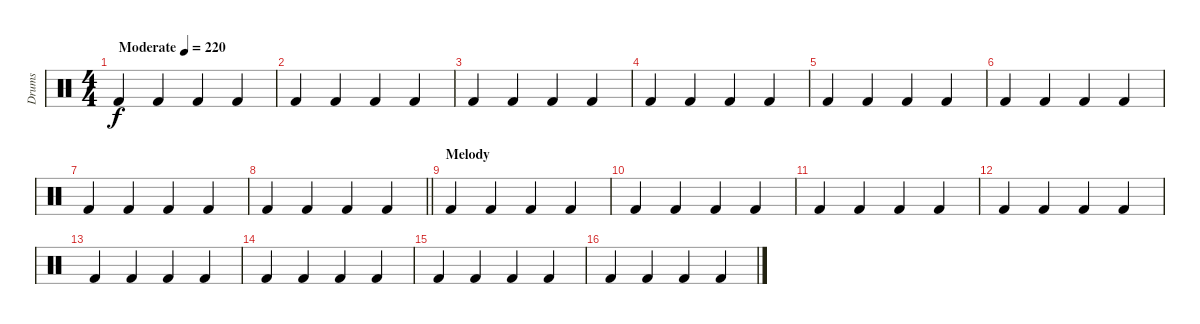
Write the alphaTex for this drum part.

\track ("Drums" "Drums") {instrument percussion}
\staff {score}
\articulation defaults
\ts (4 4)
\tempo (220 "Moderate")
\clef neutral
\ks c "Kick (hit) 2".4{dy f} "Kick (hit) 2".4 "Kick (hit) 2".4 "Kick (hit) 2".4
|
"Kick (hit) 2".4 "Kick (hit) 2".4 "Kick (hit) 2".4 "Kick (hit) 2".4 |
"Kick (hit) 2".4 "Kick (hit) 2".4 "Kick (hit) 2".4 "Kick (hit) 2".4 |
"Kick (hit) 2".4 "Kick (hit) 2".4 "Kick (hit) 2".4 "Kick (hit) 2".4 |
"Kick (hit) 2".4 "Kick (hit) 2".4 "Kick (hit) 2".4 "Kick (hit) 2".4 |
"Kick (hit) 2".4 "Kick (hit) 2".4 "Kick (hit) 2".4 "Kick (hit) 2".4 |
"Kick (hit) 2".4 "Kick (hit) 2".4 "Kick (hit) 2".4 "Kick (hit) 2".4 |
\barLineRight lightlight "Kick (hit) 2".4 "Kick (hit) 2".4 "Kick (hit) 2".4 "Kick (hit) 2".4
|
\section ("" "Melody")
"Kick (hit) 2".4 "Kick (hit) 2".4 "Kick (hit) 2".4 "Kick (hit) 2".4 |
"Kick (hit) 2".4 "Kick (hit) 2".4 "Kick (hit) 2".4 "Kick (hit) 2".4 |
"Kick (hit) 2".4 "Kick (hit) 2".4 "Kick (hit) 2".4 "Kick (hit) 2".4 |
"Kick (hit) 2".4 "Kick (hit) 2".4 "Kick (hit) 2".4 "Kick (hit) 2".4 |
"Kick (hit) 2".4 "Kick (hit) 2".4 "Kick (hit) 2".4 "Kick (hit) 2".4 |
"Kick (hit) 2".4 "Kick (hit) 2".4 "Kick (hit) 2".4 "Kick (hit) 2".4 |
"Kick (hit) 2".4 "Kick (hit) 2".4 "Kick (hit) 2".4 "Kick (hit) 2".4 |
"Kick (hit) 2".4 "Kick (hit) 2".4 "Kick (hit) 2".4 "Kick (hit) 2".4
